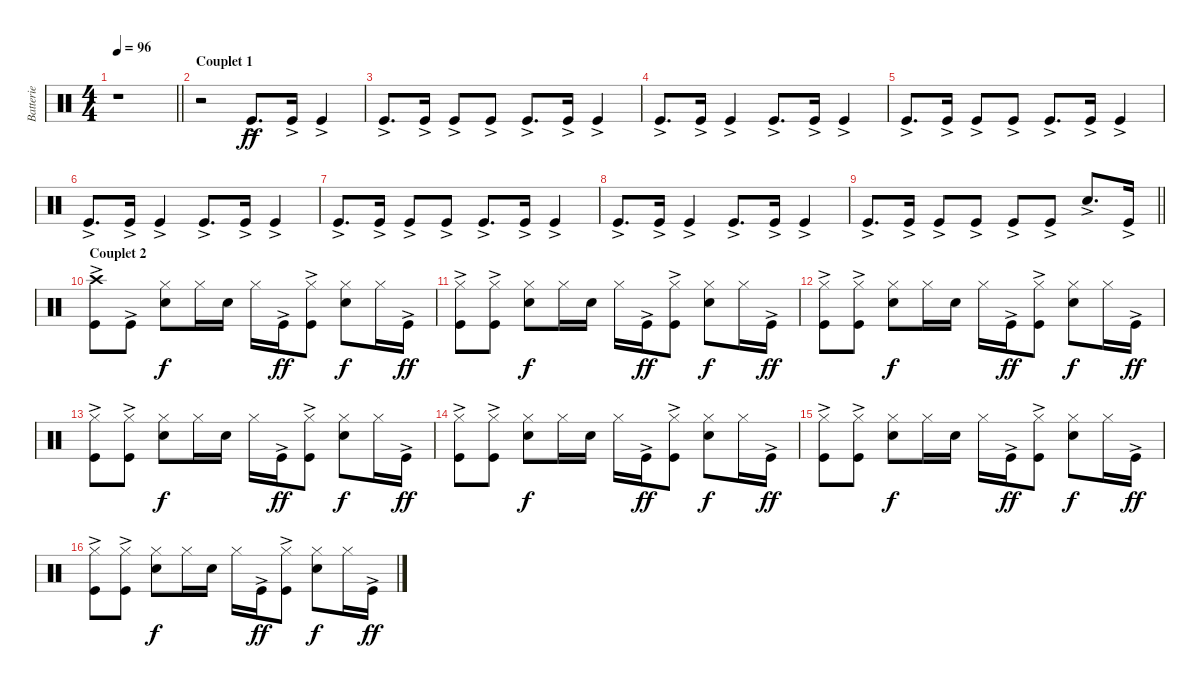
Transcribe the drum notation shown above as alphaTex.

\track ("Batterie" "Batterie") {instrument percussion}
\staff {score}
\articulation defaults
\ts (4 4)
\tempo 96
\clef neutral
\barLineRight lightlight
\ks c
r.1{dy ff} |
\section ("" "Couplet 1")
r.2 "Kick (hit)"{ac}.8{d} "Kick (hit)"{ac}.16 "Kick (hit)"{ac}.4 |
"Kick (hit)"{ac}.8{d} "Kick (hit)"{ac}.16 "Kick (hit)"{ac}.8 "Kick (hit)"{ac}.8 "Kick (hit)"{ac}.8{d} "Kick (hit)"{ac}.16 "Kick (hit)"{ac}.4 |
"Kick (hit)"{ac}.8{d} "Kick (hit)"{ac}.16 "Kick (hit)"{ac}.4 "Kick (hit)"{ac}.8{d} "Kick (hit)"{ac}.16 "Kick (hit)"{ac}.4 |
"Kick (hit)"{ac}.8{d} "Kick (hit)"{ac}.16 "Kick (hit)"{ac}.8 "Kick (hit)"{ac}.8 "Kick (hit)"{ac}.8{d} "Kick (hit)"{ac}.16 "Kick (hit)"{ac}.4 |
"Kick (hit)"{ac}.8{d} "Kick (hit)"{ac}.16 "Kick (hit)"{ac}.4 "Kick (hit)"{ac}.8{d} "Kick (hit)"{ac}.16 "Kick (hit)"{ac}.4 |
"Kick (hit)"{ac}.8{d} "Kick (hit)"{ac}.16 "Kick (hit)"{ac}.8 "Kick (hit)"{ac}.8 "Kick (hit)"{ac}.8{d} "Kick (hit)"{ac}.16 "Kick (hit)"{ac}.4 |
"Kick (hit)"{ac}.8{d} "Kick (hit)"{ac}.16 "Kick (hit)"{ac}.4 "Kick (hit)"{ac}.8{d} "Kick (hit)"{ac}.16 "Kick (hit)"{ac}.4 |
\barLineRight lightlight "Kick (hit)"{ac}.8{d} "Kick (hit)"{ac}.16 "Kick (hit)"{ac}.8 "Kick (hit)"{ac}.8 "Kick (hit)"{ac}.8 "Kick (hit)"{ac}.8 "Snare (hit) 2"{ac}.8{d} "Kick (hit)"{ac}.16
|
\section ("" "Couplet 2")
("Crash high (hit)" "Kick (hit)"{ac}).8 "Kick (hit)"{ac}.8 ("Hi-Hat (closed)" "Snare (hit) 2").8{dy f} "Hi-Hat (closed)".16 "Snare (hit) 2".16 "Hi-Hat (closed)".16 "Kick (hit)"{ac}.16{dy ff} ("Hi-Hat (closed)" "Kick (hit)"{ac}).8 ("Hi-Hat (closed)" "Snare (hit) 2").8{dy f} "Hi-Hat (closed)".16 "Kick (hit)"{ac}.16{dy ff} |
("Hi-Hat (closed)" "Kick (hit)"{ac}).8 ("Hi-Hat (closed)" "Kick (hit)"{ac}).8 ("Hi-Hat (closed)" "Snare (hit) 2").8{dy f} "Hi-Hat (closed)".16 "Snare (hit) 2".16 "Hi-Hat (closed)".16 "Kick (hit)"{ac}.16{dy ff} ("Hi-Hat (closed)" "Kick (hit)"{ac}).8 ("Hi-Hat (closed)" "Snare (hit) 2").8{dy f} "Hi-Hat (closed)".16 "Kick (hit)"{ac}.16{dy ff} |
("Hi-Hat (closed)" "Kick (hit)"{ac}).8 ("Hi-Hat (closed)" "Kick (hit)"{ac}).8 ("Hi-Hat (closed)" "Snare (hit) 2").8{dy f} "Hi-Hat (closed)".16 "Snare (hit) 2".16 "Hi-Hat (closed)".16 "Kick (hit)"{ac}.16{dy ff} ("Hi-Hat (closed)" "Kick (hit)"{ac}).8 ("Hi-Hat (closed)" "Snare (hit) 2").8{dy f} "Hi-Hat (closed)".16 "Kick (hit)"{ac}.16{dy ff} |
("Hi-Hat (closed)" "Kick (hit)"{ac}).8 ("Hi-Hat (closed)" "Kick (hit)"{ac}).8 ("Hi-Hat (closed)" "Snare (hit) 2").8{dy f} "Hi-Hat (closed)".16 "Snare (hit) 2".16 "Hi-Hat (closed)".16 "Kick (hit)"{ac}.16{dy ff} ("Hi-Hat (closed)" "Kick (hit)"{ac}).8 ("Hi-Hat (closed)" "Snare (hit) 2").8{dy f} "Hi-Hat (closed)".16 "Kick (hit)"{ac}.16{dy ff} |
("Hi-Hat (closed)" "Kick (hit)"{ac}).8 ("Hi-Hat (closed)" "Kick (hit)"{ac}).8 ("Hi-Hat (closed)" "Snare (hit) 2").8{dy f} "Hi-Hat (closed)".16 "Snare (hit) 2".16 "Hi-Hat (closed)".16 "Kick (hit)"{ac}.16{dy ff} ("Hi-Hat (closed)" "Kick (hit)"{ac}).8 ("Hi-Hat (closed)" "Snare (hit) 2").8{dy f} "Hi-Hat (closed)".16 "Kick (hit)"{ac}.16{dy ff} |
("Hi-Hat (closed)" "Kick (hit)"{ac}).8 ("Hi-Hat (closed)" "Kick (hit)"{ac}).8 ("Hi-Hat (closed)" "Snare (hit) 2").8{dy f} "Hi-Hat (closed)".16 "Snare (hit) 2".16 "Hi-Hat (closed)".16 "Kick (hit)"{ac}.16{dy ff} ("Hi-Hat (closed)" "Kick (hit)"{ac}).8 ("Hi-Hat (closed)" "Snare (hit) 2").8{dy f} "Hi-Hat (closed)".16 "Kick (hit)"{ac}.16{dy ff} |
("Hi-Hat (closed)" "Kick (hit)"{ac}).8 ("Hi-Hat (closed)" "Kick (hit)"{ac}).8 ("Hi-Hat (closed)" "Snare (hit) 2").8{dy f} "Hi-Hat (closed)".16 "Snare (hit) 2".16 "Hi-Hat (closed)".16 "Kick (hit)"{ac}.16{dy ff} ("Hi-Hat (closed)" "Kick (hit)"{ac}).8 ("Hi-Hat (closed)" "Snare (hit) 2").8{dy f} "Hi-Hat (closed)".16 "Kick (hit)"{ac}.16{dy ff}
